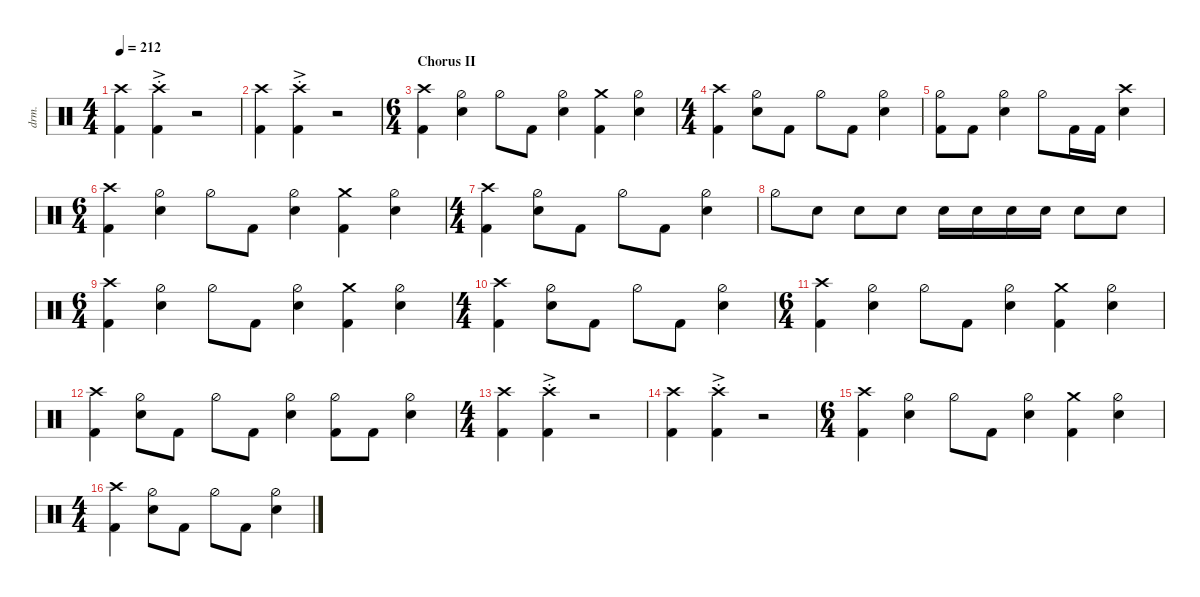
\defaultSystemsLayout 4
\hideDynamics
\bracketExtendMode nobrackets
\track ("Drums" "drm.") {instrument percussion}
\staff {score}
\articulation defaults
\ts (4 4)
\tempo 212
\clef neutral
\ks c
("Kick (hit) 2" "Crash high (hit)").4{dy ff} ("Kick (hit) 2" "Crash high (hit)"{ac st}).4 r.2 |
("Kick (hit) 2" "Crash high (hit)").4 ("Kick (hit) 2" "Crash high (hit)"{ac st}).4 r.2 |
\ts (6 4)
\beaming (8 2 2 2 6)
\section ("" "Chorus II")
("Crash high (hit)" "Kick (hit) 2").4{dy f} ("Hi-Hat (half)" "Snare (hit) 2").4 "Hi-Hat (half)".8 "Kick (hit) 2".8 ("Hi-Hat (half)" "Snare (hit) 2").4 ("Kick (hit) 2" "Crash medium (hit)").4 ("Hi-Hat (half)" "Snare (hit) 2").4 |
\ts (4 4)
\beaming (8 2 2 2 2)
("Crash high (hit)" "Kick (hit) 2").4 ("Hi-Hat (half)" "Snare (hit) 2").8 "Kick (hit) 2".8 "Hi-Hat (half)".8 "Kick (hit) 2".8 ("Hi-Hat (half)" "Snare (hit) 2").4 |
("Hi-Hat (half)" "Kick (hit) 2").8 "Kick (hit) 2".8 ("Hi-Hat (half)" "Snare (hit) 2").4 "Hi-Hat (half)".8 "Kick (hit) 2".16 "Kick (hit) 2".16 ("Snare (hit) 2" "Crash high (hit)").4 |
\ts (6 4)
\beaming (8 2 2 2 6)
("Crash high (hit)" "Kick (hit) 2").4 ("Hi-Hat (half)" "Snare (hit) 2").4 "Hi-Hat (half)".8 "Kick (hit) 2".8 ("Hi-Hat (half)" "Snare (hit) 2").4 ("Kick (hit) 2" "Crash medium (hit)").4 ("Hi-Hat (half)" "Snare (hit) 2").4 |
\ts (4 4)
\beaming (8 2 2 2 2)
("Crash high (hit)" "Kick (hit) 2").4 ("Hi-Hat (half)" "Snare (hit) 2").8 "Kick (hit) 2".8 "Hi-Hat (half)".8 "Kick (hit) 2".8 ("Hi-Hat (half)" "Snare (hit) 2").4 |
"Hi-Hat (half)".8 "Snare (hit) 2".8 "Snare (hit) 2".8 "Snare (hit) 2".8 "Snare (hit) 2".16 "Snare (hit) 2".16{dy mf} "Snare (hit) 2".16 "Snare (hit) 2".16{dy f} "Snare (hit) 2".8 "Snare (hit) 2".8 |
\ts (6 4)
\beaming (8 2 2 2 6)
("Crash high (hit)" "Kick (hit) 2").4 ("Hi-Hat (half)" "Snare (hit) 2").4 "Hi-Hat (half)".8 "Kick (hit) 2".8 ("Hi-Hat (half)" "Snare (hit) 2").4 ("Kick (hit) 2" "Crash medium (hit)").4 ("Hi-Hat (half)" "Snare (hit) 2").4 |
\ts (4 4)
\beaming (8 2 2 2 2)
("Crash high (hit)" "Kick (hit) 2").4 ("Hi-Hat (half)" "Snare (hit) 2").8 "Kick (hit) 2".8 "Hi-Hat (half)".8 "Kick (hit) 2".8 ("Hi-Hat (half)" "Snare (hit) 2").4 |
\ts (6 4)
\beaming (8 2 2 2 6)
("Crash high (hit)" "Kick (hit) 2").4 ("Hi-Hat (half)" "Snare (hit) 2").4 "Hi-Hat (half)".8 "Kick (hit) 2".8 ("Hi-Hat (half)" "Snare (hit) 2").4 ("Kick (hit) 2" "Crash medium (hit)").4 ("Hi-Hat (half)" "Snare (hit) 2").4 |
("Crash high (hit)" "Kick (hit) 2").4 ("Hi-Hat (half)" "Snare (hit) 2").8 "Kick (hit) 2".8 "Hi-Hat (half)".8 "Kick (hit) 2".8 ("Hi-Hat (half)" "Snare (hit) 2").4 ("Hi-Hat (half)" "Kick (hit) 2").8 "Kick (hit) 2".8 ("Hi-Hat (half)" "Snare (hit) 2").4 |
\ts (4 4)
\beaming (8 2 2 2 2)
("Kick (hit) 2" "Crash high (hit)").4{dy ff} ("Kick (hit) 2" "Crash high (hit)"{ac st}).4 r.2 |
("Kick (hit) 2" "Crash high (hit)").4 ("Kick (hit) 2" "Crash high (hit)"{ac st}).4 r.2 |
\ts (6 4)
\beaming (8 2 2 2 6)
("Crash high (hit)" "Kick (hit) 2").4{dy f} ("Hi-Hat (half)" "Snare (hit) 2").4 "Hi-Hat (half)".8 "Kick (hit) 2".8 ("Hi-Hat (half)" "Snare (hit) 2").4 ("Kick (hit) 2" "Crash medium (hit)").4 ("Hi-Hat (half)" "Snare (hit) 2").4 |
\ts (4 4)
\beaming (8 2 2 2 2)
("Crash high (hit)" "Kick (hit) 2").4 ("Hi-Hat (half)" "Snare (hit) 2").8 "Kick (hit) 2".8 "Hi-Hat (half)".8 "Kick (hit) 2".8 ("Hi-Hat (half)" "Snare (hit) 2").4
